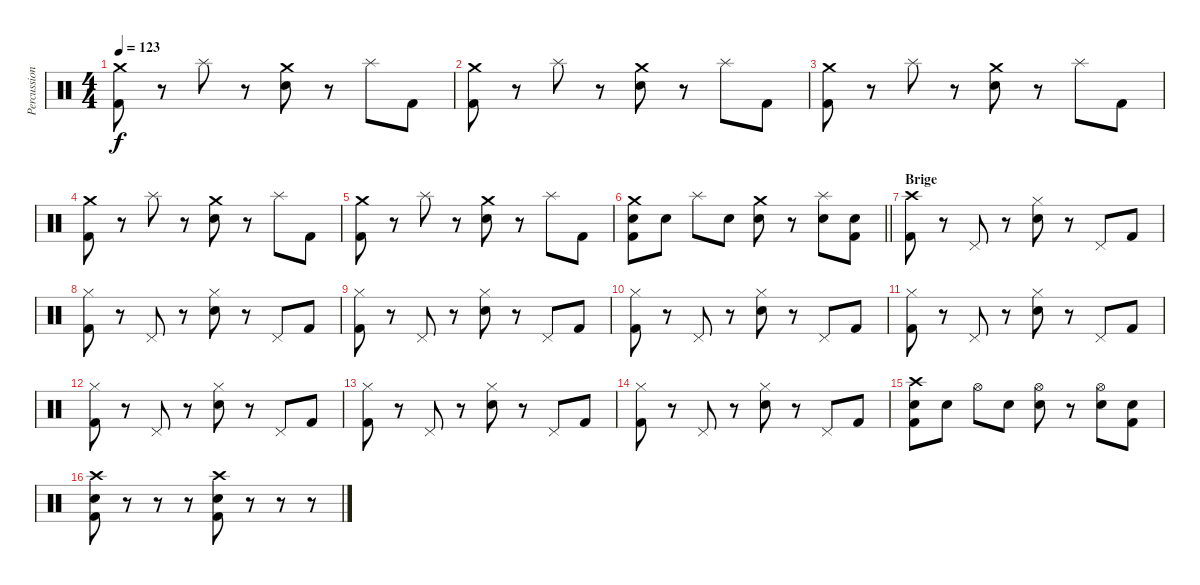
\track ("Percussion" "Percussion") {instrument percussion}
\staff {score}
\articulation defaults
\ts (4 4)
\tempo 123
\clef neutral
\ks c
("Crash medium (hit)" "Kick (hit) 2").8{dy f} r.8 "Splash (hit)".8 r.8 ("Crash medium (hit)" "Snare (hit) 2").8 r.8 "Splash (hit)".8 "Kick (hit) 2".8 |
("Crash medium (hit)" "Kick (hit) 2").8 r.8 "Splash (hit)".8 r.8 ("Crash medium (hit)" "Snare (hit) 2").8 r.8 "Splash (hit)".8 "Kick (hit) 2".8 |
("Crash medium (hit)" "Kick (hit) 2").8 r.8 "Splash (hit)".8 r.8 ("Crash medium (hit)" "Snare (hit) 2").8 r.8 "Splash (hit)".8 "Kick (hit) 2".8 |
("Crash medium (hit)" "Kick (hit) 2").8 r.8 "Splash (hit)".8 r.8 ("Crash medium (hit)" "Snare (hit) 2").8 r.8 "Splash (hit)".8 "Kick (hit) 2".8 |
("Crash medium (hit)" "Kick (hit) 2").8 r.8 "Splash (hit)".8 r.8 ("Crash medium (hit)" "Snare (hit) 2").8 r.8 "Splash (hit)".8 "Kick (hit) 2".8 |
\barLineRight lightlight
("Crash medium (hit)" "Snare (hit) 2" "Kick (hit) 2").8 "Snare (hit) 2".8 "Splash (hit)".8 "Snare (hit) 2".8 ("Crash medium (hit)" "Snare (hit) 2").8 r.8 ("Splash (hit)" "Snare (hit) 2").8 ("Snare (hit) 2" "Kick (hit) 2").8 |
\section ("" "Brige")
("Crash high (hit)" "Kick (hit) 2").8 r.8 "Pedal Hi-Hat (hit)".8 r.8 ("Hi-Hat (closed)" "Snare (hit) 2").8 r.8 "Pedal Hi-Hat (hit)".8 "Kick (hit) 2".8 |
("Hi-Hat (closed)" "Kick (hit) 2").8 r.8 "Pedal Hi-Hat (hit)".8 r.8 ("Hi-Hat (closed)" "Snare (hit) 2").8 r.8 "Pedal Hi-Hat (hit)".8 "Kick (hit) 2".8 |
("Hi-Hat (closed)" "Kick (hit) 2").8 r.8 "Pedal Hi-Hat (hit)".8 r.8 ("Hi-Hat (closed)" "Snare (hit) 2").8 r.8 "Pedal Hi-Hat (hit)".8 "Kick (hit) 2".8 |
("Hi-Hat (closed)" "Kick (hit) 2").8 r.8 "Pedal Hi-Hat (hit)".8 r.8 ("Hi-Hat (closed)" "Snare (hit) 2").8 r.8 "Pedal Hi-Hat (hit)".8 "Kick (hit) 2".8 |
("Hi-Hat (closed)" "Kick (hit) 2").8 r.8 "Pedal Hi-Hat (hit)".8 r.8 ("Hi-Hat (closed)" "Snare (hit) 2").8 r.8 "Pedal Hi-Hat (hit)".8 "Kick (hit) 2".8 |
("Hi-Hat (closed)" "Kick (hit) 2").8 r.8 "Pedal Hi-Hat (hit)".8 r.8 ("Hi-Hat (closed)" "Snare (hit) 2").8 r.8 "Pedal Hi-Hat (hit)".8 "Kick (hit) 2".8 |
("Hi-Hat (closed)" "Kick (hit) 2").8 r.8 "Pedal Hi-Hat (hit)".8 r.8 ("Hi-Hat (closed)" "Snare (hit) 2").8 r.8 "Pedal Hi-Hat (hit)".8 "Kick (hit) 2".8 |
("Hi-Hat (closed)" "Kick (hit) 2").8 r.8 "Pedal Hi-Hat (hit)".8 r.8 ("Hi-Hat (closed)" "Snare (hit) 2").8 r.8 "Pedal Hi-Hat (hit)".8 "Kick (hit) 2".8 |
("Crash high (hit)" "Snare (hit) 2" "Kick (hit) 2").8 "Snare (hit) 2".8 "Hi-Hat (open)".8 "Snare (hit) 2".8 ("Hi-Hat (open)" "Snare (hit) 2").8 r.8 ("Hi-Hat (open)" "Snare (hit) 2").8 ("Snare (hit) 2" "Kick (hit) 2").8 |
("Crash high (hit)" "Snare (hit) 2" "Kick (hit) 2").8 r.8 r.8 r.8 ("Crash high (hit)" "Snare (hit) 2" "Kick (hit) 2").8 r.8 r.8 r.8
